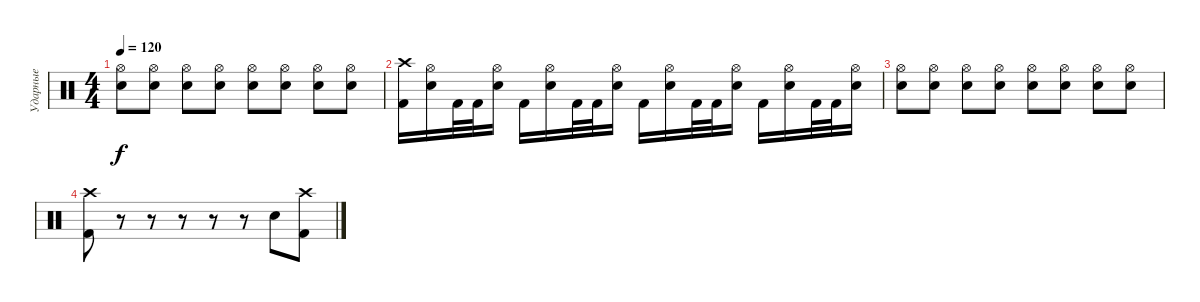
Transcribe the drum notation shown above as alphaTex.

\track ("Ударные" "Ударные") {instrument percussion}
\staff {score}
\articulation defaults
\ts (4 4)
\tempo 120
\clef neutral
\ks c
("Electric Snare (hit)" "Hi-Hat (open)").8{dy f} ("Electric Snare (hit)" "Hi-Hat (open)").8 ("Electric Snare (hit)" "Hi-Hat (open)").8 ("Electric Snare (hit)" "Hi-Hat (open)").8 ("Electric Snare (hit)" "Hi-Hat (open)").8 ("Electric Snare (hit)" "Hi-Hat (open)").8 ("Electric Snare (hit)" "Hi-Hat (open)").8 ("Electric Snare (hit)" "Hi-Hat (open)").8 |
("Kick (hit) 2" "Crash high (hit)").16 ("Electric Snare (hit)" "Hi-Hat (open)").16 "Kick (hit) 2".32 "Kick (hit) 2".32 ("Electric Snare (hit)" "Hi-Hat (open)").16 "Kick (hit) 2".16 ("Electric Snare (hit)" "Hi-Hat (open)").16 "Kick (hit) 2".32 "Kick (hit) 2".32 ("Electric Snare (hit)" "Hi-Hat (open)").16 "Kick (hit) 2".16 ("Electric Snare (hit)" "Hi-Hat (open)").16 "Kick (hit) 2".32 "Kick (hit) 2".32 ("Electric Snare (hit)" "Hi-Hat (open)").16 "Kick (hit) 2".16 ("Electric Snare (hit)" "Hi-Hat (open)").16 "Kick (hit) 2".32 "Kick (hit) 2".32 ("Electric Snare (hit)" "Hi-Hat (open)").16 |
("Electric Snare (hit)" "Hi-Hat (open)").8 ("Electric Snare (hit)" "Hi-Hat (open)").8 ("Electric Snare (hit)" "Hi-Hat (open)").8 ("Electric Snare (hit)" "Hi-Hat (open)").8 ("Electric Snare (hit)" "Hi-Hat (open)").8 ("Electric Snare (hit)" "Hi-Hat (open)").8 ("Electric Snare (hit)" "Hi-Hat (open)").8 ("Electric Snare (hit)" "Hi-Hat (open)").8 |
("Kick (hit) 2" "Crash high (hit)").8 r.8 r.8 r.8 r.8 r.8 "Electric Snare (hit)".8 ("Crash high (hit)" "Kick (hit) 2").8
